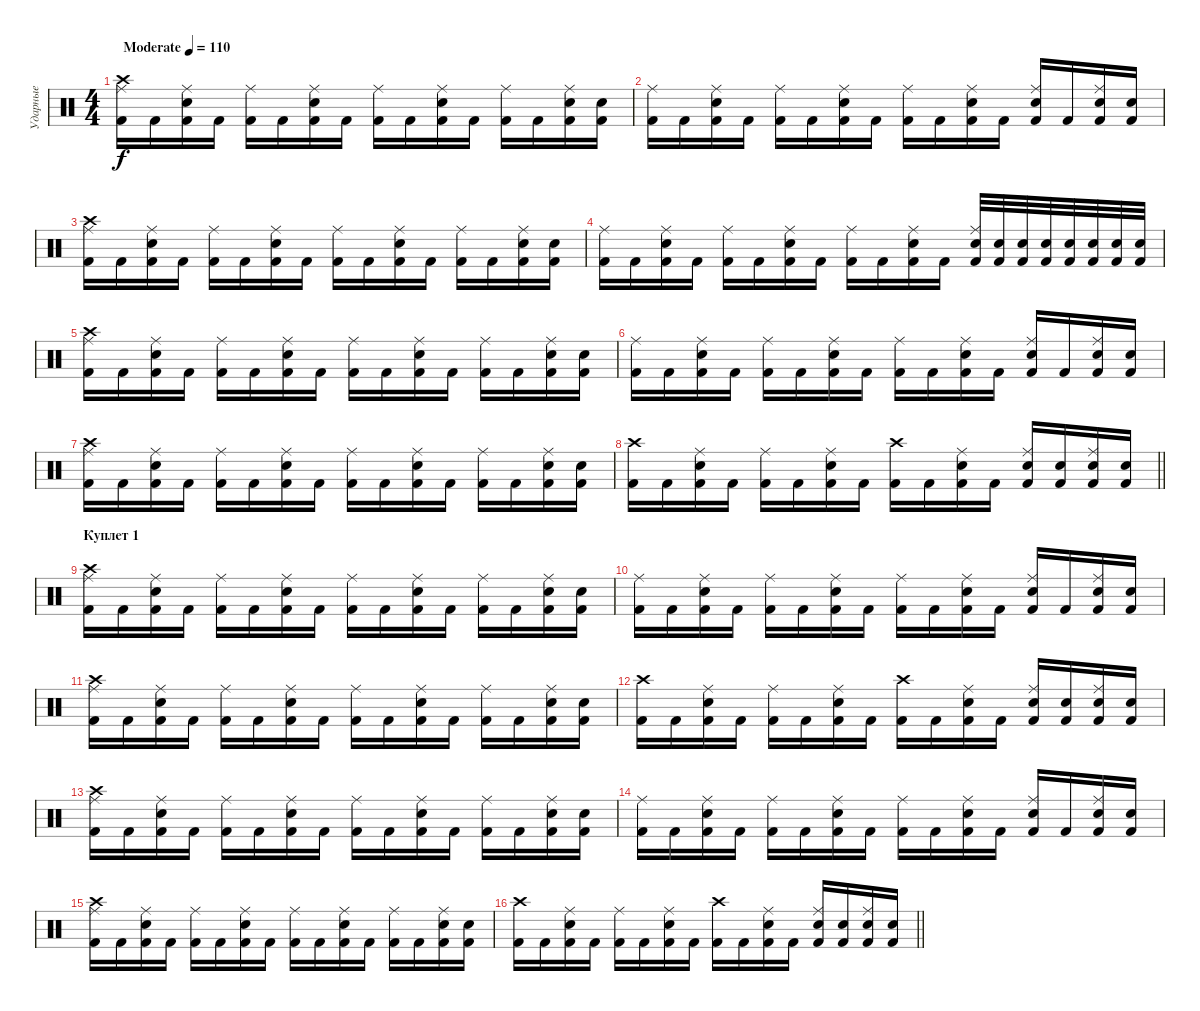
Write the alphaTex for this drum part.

\track ("Ударные" "Ударные") {instrument percussion}
\staff {score}
\articulation defaults
\ts (4 4)
\tempo (110 "Moderate")
\clef neutral
\ks c
("Kick (hit) 2" "Crash high (hit)" "Ride (middle)").16{dy f} "Kick (hit) 2".16 ("Kick (hit) 2" "Ride (middle)" "Snare (hit) 2").16 "Kick (hit) 2".16 ("Kick (hit) 2" "Ride (middle)").16 "Kick (hit) 2".16 ("Kick (hit) 2" "Ride (middle)" "Snare (hit) 2").16 "Kick (hit) 2".16 ("Kick (hit) 2" "Ride (middle)").16 "Kick (hit) 2".16 ("Kick (hit) 2" "Ride (middle)" "Snare (hit) 2").16 "Kick (hit) 2".16 ("Kick (hit) 2" "Ride (middle)").16 "Kick (hit) 2".16 ("Kick (hit) 2" "Ride (middle)" "Snare (hit) 2").16 ("Kick (hit) 2" "Snare (hit) 2").16 |
("Kick (hit) 2" "Ride (middle)").16 "Kick (hit) 2".16 ("Kick (hit) 2" "Ride (middle)" "Snare (hit) 2").16 "Kick (hit) 2".16 ("Kick (hit) 2" "Ride (middle)").16 "Kick (hit) 2".16 ("Kick (hit) 2" "Ride (middle)" "Snare (hit) 2").16 "Kick (hit) 2".16 ("Kick (hit) 2" "Ride (middle)").16 "Kick (hit) 2".16 ("Kick (hit) 2" "Ride (middle)" "Snare (hit) 2").16 "Kick (hit) 2".16 ("Kick (hit) 2" "Ride (middle)" "Snare (hit) 2").16 "Kick (hit) 2".16 ("Kick (hit) 2" "Ride (middle)" "Snare (hit) 2").16 ("Kick (hit) 2" "Snare (hit) 2").16 |
("Kick (hit) 2" "Crash high (hit)" "Ride (middle)").16 "Kick (hit) 2".16 ("Kick (hit) 2" "Ride (middle)" "Snare (hit) 2").16 "Kick (hit) 2".16 ("Kick (hit) 2" "Ride (middle)").16 "Kick (hit) 2".16 ("Kick (hit) 2" "Ride (middle)" "Snare (hit) 2").16 "Kick (hit) 2".16 ("Kick (hit) 2" "Ride (middle)").16 "Kick (hit) 2".16 ("Kick (hit) 2" "Ride (middle)" "Snare (hit) 2").16 "Kick (hit) 2".16 ("Kick (hit) 2" "Ride (middle)").16 "Kick (hit) 2".16 ("Kick (hit) 2" "Ride (middle)" "Snare (hit) 2").16 ("Kick (hit) 2" "Snare (hit) 2").16 |
("Kick (hit) 2" "Ride (middle)").16 "Kick (hit) 2".16 ("Kick (hit) 2" "Ride (middle)" "Snare (hit) 2").16 "Kick (hit) 2".16 ("Kick (hit) 2" "Ride (middle)").16 "Kick (hit) 2".16 ("Kick (hit) 2" "Ride (middle)" "Snare (hit) 2").16 "Kick (hit) 2".16 ("Kick (hit) 2" "Ride (middle)").16 "Kick (hit) 2".16 ("Kick (hit) 2" "Ride (middle)" "Snare (hit) 2").16 "Kick (hit) 2".16 ("Kick (hit) 2" "Ride (middle)" "Snare (hit) 2").32 ("Kick (hit) 2" "Snare (hit) 2").32 ("Kick (hit) 2" "Snare (hit) 2").32 ("Kick (hit) 2" "Snare (hit) 2").32 ("Kick (hit) 2" "Snare (hit) 2").32 ("Kick (hit) 2" "Snare (hit) 2").32 ("Kick (hit) 2" "Snare (hit) 2").32 ("Kick (hit) 2" "Snare (hit) 2").32 |
("Kick (hit) 2" "Crash high (hit)" "Ride (middle)").16 "Kick (hit) 2".16 ("Kick (hit) 2" "Ride (middle)" "Snare (hit) 2").16 "Kick (hit) 2".16 ("Kick (hit) 2" "Ride (middle)").16 "Kick (hit) 2".16 ("Kick (hit) 2" "Ride (middle)" "Snare (hit) 2").16 "Kick (hit) 2".16 ("Kick (hit) 2" "Ride (middle)").16 "Kick (hit) 2".16 ("Kick (hit) 2" "Ride (middle)" "Snare (hit) 2").16 "Kick (hit) 2".16 ("Kick (hit) 2" "Ride (middle)").16 "Kick (hit) 2".16 ("Kick (hit) 2" "Ride (middle)" "Snare (hit) 2").16 ("Kick (hit) 2" "Snare (hit) 2").16 |
("Kick (hit) 2" "Ride (middle)").16 "Kick (hit) 2".16 ("Kick (hit) 2" "Ride (middle)" "Snare (hit) 2").16 "Kick (hit) 2".16 ("Kick (hit) 2" "Ride (middle)").16 "Kick (hit) 2".16 ("Kick (hit) 2" "Ride (middle)" "Snare (hit) 2").16 "Kick (hit) 2".16 ("Kick (hit) 2" "Ride (middle)").16 "Kick (hit) 2".16 ("Kick (hit) 2" "Ride (middle)" "Snare (hit) 2").16 "Kick (hit) 2".16 ("Kick (hit) 2" "Ride (middle)" "Snare (hit) 2").16 "Kick (hit) 2".16 ("Kick (hit) 2" "Ride (middle)" "Snare (hit) 2").16 ("Kick (hit) 2" "Snare (hit) 2").16 |
("Kick (hit) 2" "Crash high (hit)" "Ride (middle)").16 "Kick (hit) 2".16 ("Kick (hit) 2" "Ride (middle)" "Snare (hit) 2").16 "Kick (hit) 2".16 ("Kick (hit) 2" "Ride (middle)").16 "Kick (hit) 2".16 ("Kick (hit) 2" "Ride (middle)" "Snare (hit) 2").16 "Kick (hit) 2".16 ("Kick (hit) 2" "Ride (middle)").16 "Kick (hit) 2".16 ("Kick (hit) 2" "Ride (middle)" "Snare (hit) 2").16 "Kick (hit) 2".16 ("Kick (hit) 2" "Ride (middle)").16 "Kick (hit) 2".16 ("Kick (hit) 2" "Ride (middle)" "Snare (hit) 2").16 ("Kick (hit) 2" "Snare (hit) 2").16 |
\barLineRight lightlight
("Kick (hit) 2" "Crash high (hit)").16 "Kick (hit) 2".16 ("Kick (hit) 2" "Ride (middle)" "Snare (hit) 2").16 "Kick (hit) 2".16 ("Kick (hit) 2" "Ride (middle)").16 "Kick (hit) 2".16 ("Kick (hit) 2" "Ride (middle)" "Snare (hit) 2").16 "Kick (hit) 2".16 ("Kick (hit) 2" "Crash high (hit)").16 "Kick (hit) 2".16 ("Kick (hit) 2" "Ride (middle)" "Snare (hit) 2").16 "Kick (hit) 2".16 ("Kick (hit) 2" "Ride (middle)" "Snare (hit) 2").16 ("Kick (hit) 2" "Snare (hit) 2").16 ("Kick (hit) 2" "Ride (middle)" "Snare (hit) 2").16 ("Kick (hit) 2" "Snare (hit) 2").16 |
\section ("" "Куплет 1")
("Kick (hit) 2" "Crash high (hit)" "Ride (middle)").16 "Kick (hit) 2".16 ("Kick (hit) 2" "Ride (middle)" "Snare (hit) 2").16 "Kick (hit) 2".16 ("Kick (hit) 2" "Ride (middle)").16 "Kick (hit) 2".16 ("Kick (hit) 2" "Ride (middle)" "Snare (hit) 2").16 "Kick (hit) 2".16 ("Kick (hit) 2" "Ride (middle)").16 "Kick (hit) 2".16 ("Kick (hit) 2" "Ride (middle)" "Snare (hit) 2").16 "Kick (hit) 2".16 ("Kick (hit) 2" "Ride (middle)").16 "Kick (hit) 2".16 ("Kick (hit) 2" "Ride (middle)" "Snare (hit) 2").16 ("Kick (hit) 2" "Snare (hit) 2").16 |
("Kick (hit) 2" "Ride (middle)").16 "Kick (hit) 2".16 ("Kick (hit) 2" "Ride (middle)" "Snare (hit) 2").16 "Kick (hit) 2".16 ("Kick (hit) 2" "Ride (middle)").16 "Kick (hit) 2".16 ("Kick (hit) 2" "Ride (middle)" "Snare (hit) 2").16 "Kick (hit) 2".16 ("Kick (hit) 2" "Ride (middle)").16 "Kick (hit) 2".16 ("Kick (hit) 2" "Ride (middle)" "Snare (hit) 2").16 "Kick (hit) 2".16 ("Kick (hit) 2" "Ride (middle)" "Snare (hit) 2").16 "Kick (hit) 2".16 ("Kick (hit) 2" "Ride (middle)" "Snare (hit) 2").16 ("Kick (hit) 2" "Snare (hit) 2").16 |
("Kick (hit) 2" "Crash high (hit)" "Ride (middle)").16 "Kick (hit) 2".16 ("Kick (hit) 2" "Ride (middle)" "Snare (hit) 2").16 "Kick (hit) 2".16 ("Kick (hit) 2" "Ride (middle)").16 "Kick (hit) 2".16 ("Kick (hit) 2" "Ride (middle)" "Snare (hit) 2").16 "Kick (hit) 2".16 ("Kick (hit) 2" "Ride (middle)").16 "Kick (hit) 2".16 ("Kick (hit) 2" "Ride (middle)" "Snare (hit) 2").16 "Kick (hit) 2".16 ("Kick (hit) 2" "Ride (middle)").16 "Kick (hit) 2".16 ("Kick (hit) 2" "Ride (middle)" "Snare (hit) 2").16 ("Kick (hit) 2" "Snare (hit) 2").16 |
("Kick (hit) 2" "Crash high (hit)").16 "Kick (hit) 2".16 ("Kick (hit) 2" "Ride (middle)" "Snare (hit) 2").16 "Kick (hit) 2".16 ("Kick (hit) 2" "Ride (middle)").16 "Kick (hit) 2".16 ("Kick (hit) 2" "Ride (middle)" "Snare (hit) 2").16 "Kick (hit) 2".16 ("Kick (hit) 2" "Crash high (hit)").16 "Kick (hit) 2".16 ("Kick (hit) 2" "Ride (middle)" "Snare (hit) 2").16 "Kick (hit) 2".16 ("Kick (hit) 2" "Ride (middle)" "Snare (hit) 2").16 ("Kick (hit) 2" "Snare (hit) 2").16 ("Kick (hit) 2" "Ride (middle)" "Snare (hit) 2").16 ("Kick (hit) 2" "Snare (hit) 2").16 |
("Kick (hit) 2" "Crash high (hit)" "Ride (middle)").16 "Kick (hit) 2".16 ("Kick (hit) 2" "Ride (middle)" "Snare (hit) 2").16 "Kick (hit) 2".16 ("Kick (hit) 2" "Ride (middle)").16 "Kick (hit) 2".16 ("Kick (hit) 2" "Ride (middle)" "Snare (hit) 2").16 "Kick (hit) 2".16 ("Kick (hit) 2" "Ride (middle)").16 "Kick (hit) 2".16 ("Kick (hit) 2" "Ride (middle)" "Snare (hit) 2").16 "Kick (hit) 2".16 ("Kick (hit) 2" "Ride (middle)").16 "Kick (hit) 2".16 ("Kick (hit) 2" "Ride (middle)" "Snare (hit) 2").16 ("Kick (hit) 2" "Snare (hit) 2").16 |
("Kick (hit) 2" "Ride (middle)").16 "Kick (hit) 2".16 ("Kick (hit) 2" "Ride (middle)" "Snare (hit) 2").16 "Kick (hit) 2".16 ("Kick (hit) 2" "Ride (middle)").16 "Kick (hit) 2".16 ("Kick (hit) 2" "Ride (middle)" "Snare (hit) 2").16 "Kick (hit) 2".16 ("Kick (hit) 2" "Ride (middle)").16 "Kick (hit) 2".16 ("Kick (hit) 2" "Ride (middle)" "Snare (hit) 2").16 "Kick (hit) 2".16 ("Kick (hit) 2" "Ride (middle)" "Snare (hit) 2").16 "Kick (hit) 2".16 ("Kick (hit) 2" "Ride (middle)" "Snare (hit) 2").16 ("Kick (hit) 2" "Snare (hit) 2").16 |
("Kick (hit) 2" "Crash high (hit)" "Ride (middle)").16 "Kick (hit) 2".16 ("Kick (hit) 2" "Ride (middle)" "Snare (hit) 2").16 "Kick (hit) 2".16 ("Kick (hit) 2" "Ride (middle)").16 "Kick (hit) 2".16 ("Kick (hit) 2" "Ride (middle)" "Snare (hit) 2").16 "Kick (hit) 2".16 ("Kick (hit) 2" "Ride (middle)").16 "Kick (hit) 2".16 ("Kick (hit) 2" "Ride (middle)" "Snare (hit) 2").16 "Kick (hit) 2".16 ("Kick (hit) 2" "Ride (middle)").16 "Kick (hit) 2".16 ("Kick (hit) 2" "Ride (middle)" "Snare (hit) 2").16 ("Kick (hit) 2" "Snare (hit) 2").16 |
\barLineRight lightlight
("Kick (hit) 2" "Crash high (hit)").16 "Kick (hit) 2".16 ("Kick (hit) 2" "Ride (middle)" "Snare (hit) 2").16 "Kick (hit) 2".16 ("Kick (hit) 2" "Ride (middle)").16 "Kick (hit) 2".16 ("Kick (hit) 2" "Ride (middle)" "Snare (hit) 2").16 "Kick (hit) 2".16 ("Kick (hit) 2" "Crash high (hit)").16 "Kick (hit) 2".16 ("Kick (hit) 2" "Ride (middle)" "Snare (hit) 2").16 "Kick (hit) 2".16 ("Kick (hit) 2" "Ride (middle)" "Snare (hit) 2").16 ("Kick (hit) 2" "Snare (hit) 2").16 ("Kick (hit) 2" "Ride (middle)" "Snare (hit) 2").16 ("Kick (hit) 2" "Snare (hit) 2").16
